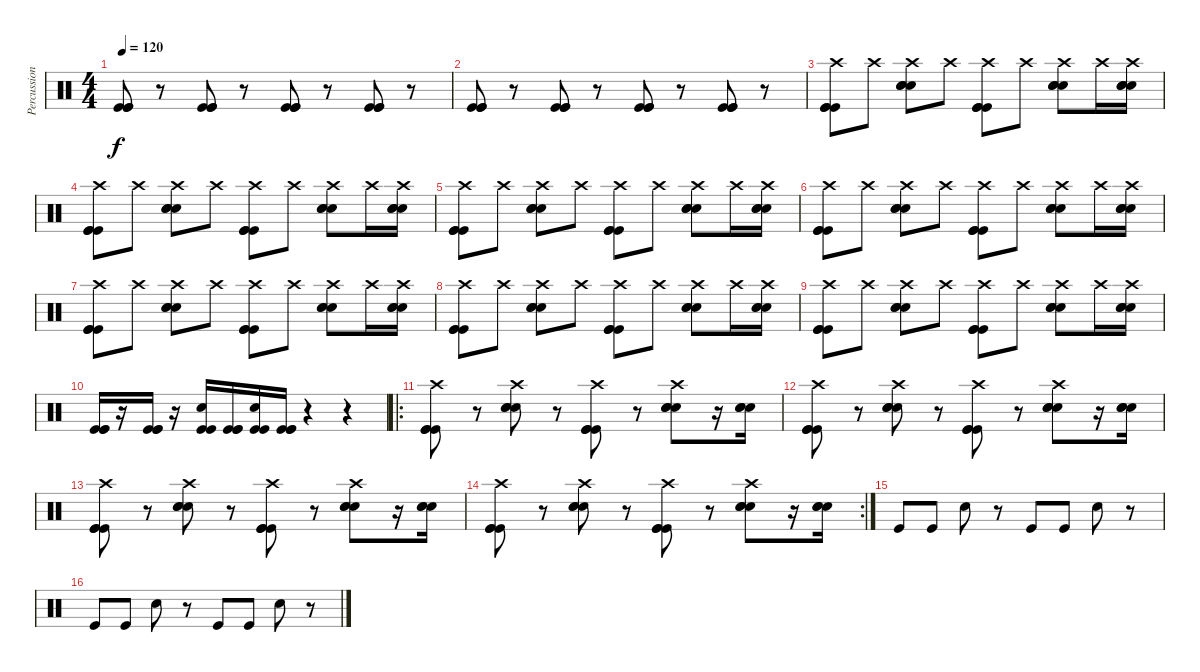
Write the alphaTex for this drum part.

\track ("Percussions" "Percussion") {instrument percussion}
\staff {score}
\articulation defaults
\ts (4 4)
\tempo 120
\clef neutral
\ks c
("Kick (hit)" "Kick (hit)" "Kick (hit)").8{dy f} r.8 ("Kick (hit)" "Kick (hit)" "Kick (hit)").8 r.8 ("Kick (hit)" "Kick (hit)" "Kick (hit)").8 r.8 ("Kick (hit)" "Kick (hit)" "Kick (hit)").8 r.8 |
("Kick (hit)" "Kick (hit)" "Kick (hit)").8 r.8 ("Kick (hit)" "Kick (hit)" "Kick (hit)").8 r.8 ("Kick (hit)" "Kick (hit)" "Kick (hit)").8 r.8 ("Kick (hit)" "Kick (hit)" "Kick (hit)").8 r.8 |
("Crash high (hit)" "Kick (hit)" "Kick (hit)" "Kick (hit)").8 "Crash high (hit)".8 ("Crash high (hit)" "Electric Snare (hit)" "Electric Snare (hit)" "Electric Snare (hit)").8 "Crash high (hit)".8 ("Crash high (hit)" "Kick (hit)" "Kick (hit)" "Kick (hit)").8 "Crash high (hit)".8 ("Crash high (hit)" "Electric Snare (hit)" "Electric Snare (hit)" "Electric Snare (hit)").8 "Crash high (hit)".16 ("Crash high (hit)" "Electric Snare (hit)" "Electric Snare (hit)" "Electric Snare (hit)").16 |
("Crash high (hit)" "Kick (hit)" "Kick (hit)" "Kick (hit)").8 "Crash high (hit)".8 ("Crash high (hit)" "Electric Snare (hit)" "Electric Snare (hit)" "Electric Snare (hit)").8 "Crash high (hit)".8 ("Crash high (hit)" "Kick (hit)" "Kick (hit)" "Kick (hit)").8 "Crash high (hit)".8 ("Crash high (hit)" "Electric Snare (hit)" "Electric Snare (hit)" "Electric Snare (hit)").8 "Crash high (hit)".16 ("Crash high (hit)" "Electric Snare (hit)" "Electric Snare (hit)" "Electric Snare (hit)").16 |
("Crash high (hit)" "Kick (hit)" "Kick (hit)" "Kick (hit)").8 "Crash high (hit)".8 ("Crash high (hit)" "Electric Snare (hit)" "Electric Snare (hit)" "Electric Snare (hit)").8 "Crash high (hit)".8 ("Crash high (hit)" "Kick (hit)" "Kick (hit)" "Kick (hit)").8 "Crash high (hit)".8 ("Crash high (hit)" "Electric Snare (hit)" "Electric Snare (hit)" "Electric Snare (hit)").8 "Crash high (hit)".16 ("Crash high (hit)" "Electric Snare (hit)" "Electric Snare (hit)" "Electric Snare (hit)").16 |
("Crash high (hit)" "Kick (hit)" "Kick (hit)" "Kick (hit)").8 "Crash high (hit)".8 ("Crash high (hit)" "Electric Snare (hit)" "Electric Snare (hit)" "Electric Snare (hit)").8 "Crash high (hit)".8 ("Crash high (hit)" "Kick (hit)" "Kick (hit)" "Kick (hit)").8 "Crash high (hit)".8 ("Crash high (hit)" "Electric Snare (hit)" "Electric Snare (hit)" "Electric Snare (hit)").8 "Crash high (hit)".16 ("Crash high (hit)" "Electric Snare (hit)" "Electric Snare (hit)" "Electric Snare (hit)").16 |
("Crash high (hit)" "Kick (hit)" "Kick (hit)" "Kick (hit)").8 "Crash high (hit)".8 ("Crash high (hit)" "Electric Snare (hit)" "Electric Snare (hit)" "Electric Snare (hit)").8 "Crash high (hit)".8 ("Crash high (hit)" "Kick (hit)" "Kick (hit)" "Kick (hit)").8 "Crash high (hit)".8 ("Crash high (hit)" "Electric Snare (hit)" "Electric Snare (hit)" "Electric Snare (hit)").8 "Crash high (hit)".16 ("Crash high (hit)" "Electric Snare (hit)" "Electric Snare (hit)" "Electric Snare (hit)").16 |
("Crash high (hit)" "Kick (hit)" "Kick (hit)" "Kick (hit)").8 "Crash high (hit)".8 ("Crash high (hit)" "Electric Snare (hit)" "Electric Snare (hit)" "Electric Snare (hit)").8 "Crash high (hit)".8 ("Crash high (hit)" "Kick (hit)" "Kick (hit)" "Kick (hit)").8 "Crash high (hit)".8 ("Crash high (hit)" "Electric Snare (hit)" "Electric Snare (hit)" "Electric Snare (hit)").8 "Crash high (hit)".16 ("Crash high (hit)" "Electric Snare (hit)" "Electric Snare (hit)" "Electric Snare (hit)").16 |
("Crash high (hit)" "Kick (hit)" "Kick (hit)" "Kick (hit)").8 "Crash high (hit)".8 ("Crash high (hit)" "Electric Snare (hit)" "Electric Snare (hit)" "Electric Snare (hit)").8 "Crash high (hit)".8 ("Crash high (hit)" "Kick (hit)" "Kick (hit)" "Kick (hit)").8 "Crash high (hit)".8 ("Crash high (hit)" "Electric Snare (hit)" "Electric Snare (hit)" "Electric Snare (hit)").8 "Crash high (hit)".16 ("Crash high (hit)" "Electric Snare (hit)" "Electric Snare (hit)" "Electric Snare (hit)").16 |
("Kick (hit)" "Kick (hit)" "Kick (hit)").16 r.16 ("Kick (hit)" "Kick (hit)" "Kick (hit)").16 r.16 ("Kick (hit)" "Kick (hit)" "Electric Snare (hit)").16 ("Kick (hit)" "Kick (hit)" "Kick (hit)").16 ("Kick (hit)" "Kick (hit)" "Electric Snare (hit)").16 ("Kick (hit)" "Kick (hit)" "Kick (hit)").16 r.4 r.4 |
\ro
("Crash high (hit)" "Kick (hit)" "Kick (hit)" "Kick (hit)").8 r.8 ("Crash high (hit)" "Electric Snare (hit)" "Electric Snare (hit)" "Electric Snare (hit)").8 r.8 ("Crash high (hit)" "Kick (hit)" "Kick (hit)" "Kick (hit)").8 r.8 ("Crash high (hit)" "Electric Snare (hit)" "Electric Snare (hit)" "Electric Snare (hit)").8 r.16 ("Electric Snare (hit)" "Electric Snare (hit)" "Electric Snare (hit)").16 |
("Crash high (hit)" "Kick (hit)" "Kick (hit)" "Kick (hit)").8 r.8 ("Crash high (hit)" "Electric Snare (hit)" "Electric Snare (hit)" "Electric Snare (hit)").8 r.8 ("Crash high (hit)" "Kick (hit)" "Kick (hit)" "Kick (hit)").8 r.8 ("Crash high (hit)" "Electric Snare (hit)" "Electric Snare (hit)" "Electric Snare (hit)").8 r.16 ("Electric Snare (hit)" "Electric Snare (hit)" "Electric Snare (hit)").16 |
("Crash high (hit)" "Kick (hit)" "Kick (hit)" "Kick (hit)").8 r.8 ("Crash high (hit)" "Electric Snare (hit)" "Electric Snare (hit)" "Electric Snare (hit)").8 r.8 ("Crash high (hit)" "Kick (hit)" "Kick (hit)" "Kick (hit)").8 r.8 ("Crash high (hit)" "Electric Snare (hit)" "Electric Snare (hit)" "Electric Snare (hit)").8 r.16 ("Electric Snare (hit)" "Electric Snare (hit)" "Electric Snare (hit)").16 |
\rc 2
("Crash high (hit)" "Kick (hit)" "Kick (hit)" "Kick (hit)").8 r.8 ("Crash high (hit)" "Electric Snare (hit)" "Electric Snare (hit)" "Electric Snare (hit)").8 r.8 ("Crash high (hit)" "Kick (hit)" "Kick (hit)" "Kick (hit)").8 r.8 ("Crash high (hit)" "Electric Snare (hit)" "Electric Snare (hit)" "Electric Snare (hit)").8 r.16 ("Electric Snare (hit)" "Electric Snare (hit)" "Electric Snare (hit)").16 |
"Kick (hit)".8 "Kick (hit)".8 "Electric Snare (hit)".8 r.8 "Kick (hit)".8 "Kick (hit)".8 "Electric Snare (hit)".8 r.8 |
"Kick (hit)".8 "Kick (hit)".8 "Electric Snare (hit)".8 r.8 "Kick (hit)".8 "Kick (hit)".8 "Electric Snare (hit)".8 r.8
